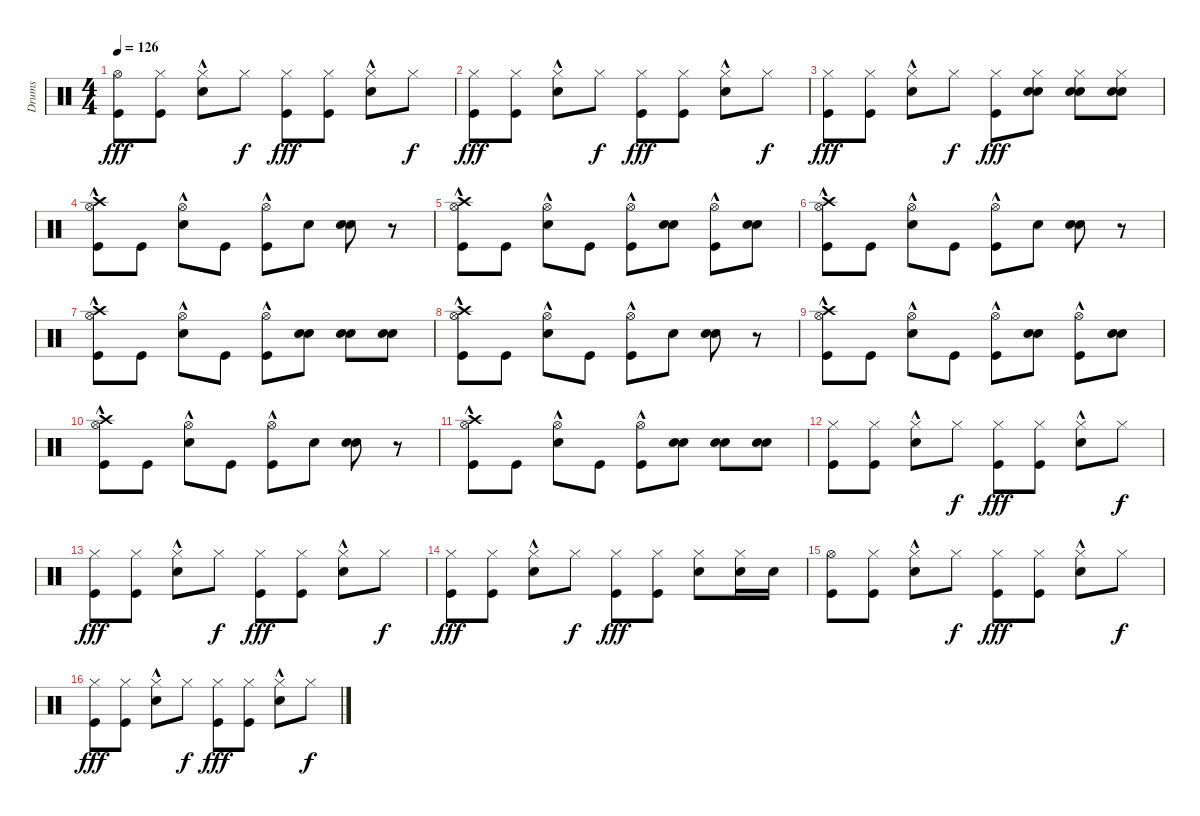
\track ("Drums" "Drums") {instrument percussion}
\staff {score}
\articulation defaults
\ts (4 4)
\tempo 126
\clef neutral
\ks c
("Hi-Hat (open)" "Kick (hit)").8{dy fff} ("Hi-Hat (closed)" "Kick (hit)").8 ("Hi-Hat (closed)" "Snare (hit) 2"{hac}).8 "Hi-Hat (closed)".8{dy f} ("Hi-Hat (closed)" "Kick (hit)").8{dy fff} ("Hi-Hat (closed)" "Kick (hit)").8 ("Snare (hit) 2"{hac} "Hi-Hat (closed)").8 "Hi-Hat (closed)".8{dy f} |
("Hi-Hat (closed)" "Kick (hit)").8{dy fff} ("Hi-Hat (closed)" "Kick (hit)").8 ("Hi-Hat (closed)" "Snare (hit) 2"{hac}).8 "Hi-Hat (closed)".8{dy f} ("Hi-Hat (closed)" "Kick (hit)").8{dy fff} ("Hi-Hat (closed)" "Kick (hit)").8 ("Snare (hit) 2"{hac} "Hi-Hat (closed)").8 "Hi-Hat (closed)".8{dy f} |
("Hi-Hat (closed)" "Kick (hit)").8{dy fff} ("Kick (hit)" "Hi-Hat (closed)").8 ("Snare (hit) 2"{hac} "Hi-Hat (closed)").8 "Hi-Hat (closed)".8{dy f} ("Hi-Hat (closed)" "Kick (hit)").8{dy fff} ("Hi-Hat (closed)" "Snare (hit) 2" "Electric Snare (hit)").8 ("Snare (hit) 2" "Electric Snare (hit)" "Hi-Hat (closed)").8 ("Hi-Hat (closed)" "Snare (hit) 2" "Electric Snare (hit)").8 |
("Kick (hit)" "Crash high (hit)"{hac} "Hi-Hat (open)"{hac}).8 "Kick (hit)".8 ("Hi-Hat (open)"{hac} "Electric Snare (hit)").8 "Kick (hit)".8 ("Hi-Hat (open)"{hac} "Kick (hit)").8 "Electric Snare (hit)".8 ("Electric Snare (hit)" "Snare (hit) 2").8 r.8 |
("Hi-Hat (open)"{hac} "Crash high (hit)"{hac} "Kick (hit)").8 "Kick (hit)".8 ("Electric Snare (hit)" "Hi-Hat (open)"{hac}).8 "Kick (hit)".8 ("Hi-Hat (open)"{hac} "Kick (hit)").8 ("Snare (hit) 2" "Electric Snare (hit)").8 ("Kick (hit)" "Hi-Hat (open)"{hac}).8 ("Electric Snare (hit)" "Snare (hit) 2").8 |
("Crash high (hit)"{hac} "Hi-Hat (open)"{hac} "Kick (hit)").8 "Kick (hit)".8 ("Hi-Hat (open)"{hac} "Electric Snare (hit)").8 "Kick (hit)".8 ("Kick (hit)" "Hi-Hat (open)"{hac}).8 "Electric Snare (hit)".8 ("Snare (hit) 2" "Electric Snare (hit)").8 r.8 |
("Kick (hit)" "Hi-Hat (open)"{hac} "Crash high (hit)"{hac}).8 "Kick (hit)".8 ("Hi-Hat (open)"{hac} "Electric Snare (hit)").8 "Kick (hit)".8 ("Hi-Hat (open)"{hac} "Kick (hit)").8 ("Snare (hit) 2" "Electric Snare (hit)").8 ("Snare (hit) 2" "Electric Snare (hit)").8 ("Electric Snare (hit)" "Snare (hit) 2").8 |
("Kick (hit)" "Crash high (hit)"{hac} "Hi-Hat (open)"{hac}).8 "Kick (hit)".8 ("Hi-Hat (open)"{hac} "Electric Snare (hit)").8 "Kick (hit)".8 ("Kick (hit)" "Hi-Hat (open)"{hac}).8 "Electric Snare (hit)".8 ("Electric Snare (hit)" "Snare (hit) 2").8 r.8 |
("Crash high (hit)"{hac} "Kick (hit)" "Hi-Hat (open)"{hac}).8 "Kick (hit)".8 ("Electric Snare (hit)" "Hi-Hat (open)"{hac}).8 "Kick (hit)".8 ("Hi-Hat (open)"{hac} "Kick (hit)").8 ("Electric Snare (hit)" "Snare (hit) 2").8 ("Kick (hit)" "Hi-Hat (open)"{hac}).8 ("Electric Snare (hit)" "Snare (hit) 2").8 |
("Hi-Hat (open)"{hac} "Kick (hit)" "Crash high (hit)"{hac}).8 "Kick (hit)".8 ("Hi-Hat (open)"{hac} "Electric Snare (hit)").8 "Kick (hit)".8 ("Hi-Hat (open)"{hac} "Kick (hit)").8 "Electric Snare (hit)".8 ("Snare (hit) 2" "Electric Snare (hit)").8 r.8 |
("Crash high (hit)"{hac} "Kick (hit)" "Hi-Hat (open)"{hac}).8 "Kick (hit)".8 ("Electric Snare (hit)" "Hi-Hat (open)"{hac}).8 "Kick (hit)".8 ("Kick (hit)" "Hi-Hat (open)"{hac}).8 ("Electric Snare (hit)" "Snare (hit) 2").8 ("Snare (hit) 2" "Electric Snare (hit)").8 ("Electric Snare (hit)" "Snare (hit) 2").8 |
("Hi-Hat (closed)" "Kick (hit)").8 ("Hi-Hat (closed)" "Kick (hit)").8 ("Hi-Hat (closed)" "Snare (hit) 2"{hac}).8 "Hi-Hat (closed)".8{dy f} ("Hi-Hat (closed)" "Kick (hit)").8{dy fff} ("Hi-Hat (closed)" "Kick (hit)").8 ("Snare (hit) 2"{hac} "Hi-Hat (closed)").8 "Hi-Hat (closed)".8{dy f} |
("Hi-Hat (closed)" "Kick (hit)").8{dy fff} ("Hi-Hat (closed)" "Kick (hit)").8 ("Hi-Hat (closed)" "Snare (hit) 2"{hac}).8 "Hi-Hat (closed)".8{dy f} ("Hi-Hat (closed)" "Kick (hit)").8{dy fff} ("Hi-Hat (closed)" "Kick (hit)").8 ("Hi-Hat (closed)" "Snare (hit) 2"{hac}).8 "Hi-Hat (closed)".8{dy f} |
("Hi-Hat (closed)" "Kick (hit)").8{dy fff} ("Hi-Hat (closed)" "Kick (hit)").8 ("Hi-Hat (closed)" "Snare (hit) 2"{hac}).8 "Hi-Hat (closed)".8{dy f} ("Hi-Hat (closed)" "Kick (hit)").8{dy fff} ("Hi-Hat (closed)" "Kick (hit)").8 ("Snare (hit) 2" "Hi-Hat (closed)").8 ("Hi-Hat (closed)" "Snare (hit) 2").16 "Snare (hit) 2".16 |
("Hi-Hat (open)" "Kick (hit)").8 ("Hi-Hat (closed)" "Kick (hit)").8 ("Hi-Hat (closed)" "Snare (hit) 2"{hac}).8 "Hi-Hat (closed)".8{dy f} ("Hi-Hat (closed)" "Kick (hit)").8{dy fff} ("Hi-Hat (closed)" "Kick (hit)").8 ("Hi-Hat (closed)" "Snare (hit) 2"{hac}).8 "Hi-Hat (closed)".8{dy f} |
("Hi-Hat (closed)" "Kick (hit)").8{dy fff} ("Hi-Hat (closed)" "Kick (hit)").8 ("Hi-Hat (closed)" "Snare (hit) 2"{hac}).8 "Hi-Hat (closed)".8{dy f} ("Hi-Hat (closed)" "Kick (hit)").8{dy fff} ("Hi-Hat (closed)" "Kick (hit)").8 ("Hi-Hat (closed)" "Snare (hit) 2"{hac}).8 "Hi-Hat (closed)".8{dy f}
